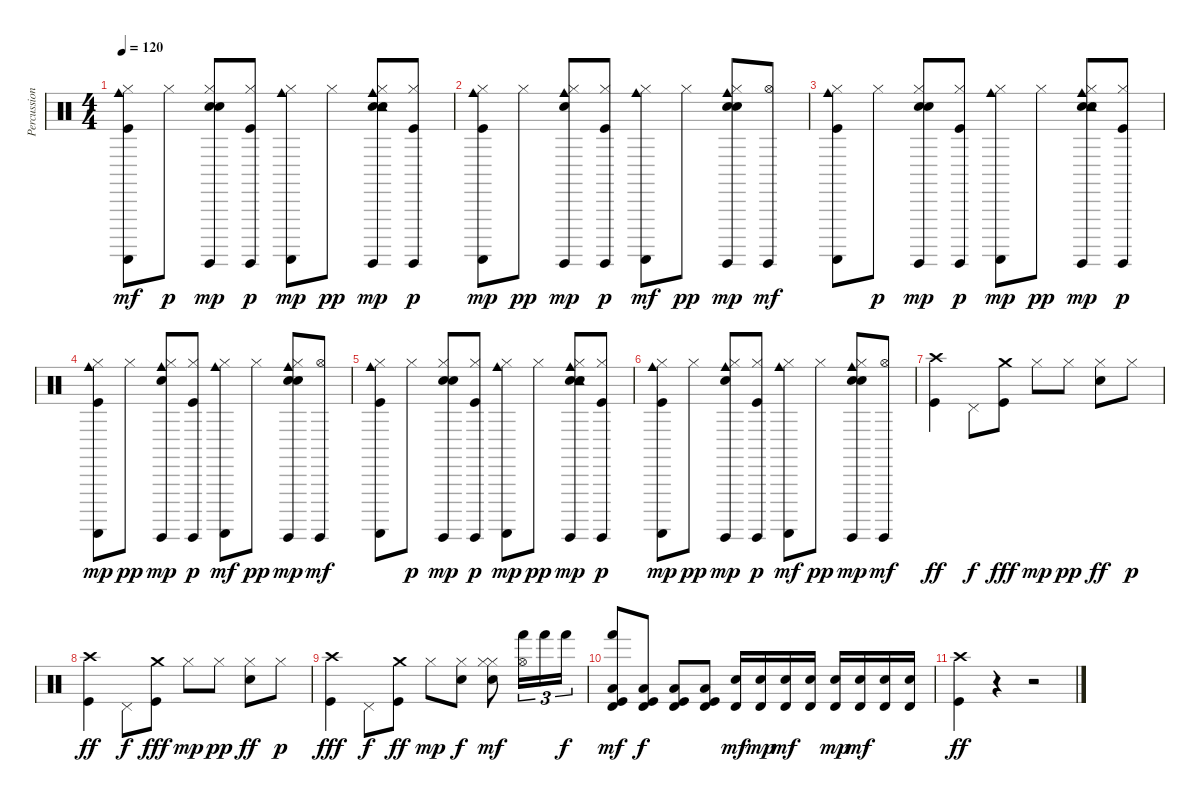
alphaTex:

\track ("Percussions" "Percussion") {instrument percussion}
\staff {score}
\articulation defaults
\ts (4 4)
\tempo 120
\clef neutral
\ks c
("Hi-Hat (closed)" "Guiro (scrap-return)" "Cowbell medium (hit)" "Kick (hit)").8{dy mf} "Hi-Hat (closed)".8{dy p} ("Hi-Hat (closed)" "Guiro (hit)" "Snare (hit) 2" "Hand Clap (hit)").8{dy mp} ("Hi-Hat (closed)" "Guiro (hit)" "Kick (hit)").8{dy p} ("Hi-Hat (closed)" "Guiro (scrap-return)" "Cowbell medium (hit)").8{dy mp} "Hi-Hat (closed)".8{dy pp} ("Hi-Hat (closed)" "Guiro (hit)" "Snare (hit) 2" "Hand Clap (hit)" "Cowbell medium (hit)" "Tambourine (hit)").8{dy mp} ("Hi-Hat (closed)" "Guiro (hit)" "Kick (hit)").8{dy p} |
("Hi-Hat (closed)" "Guiro (scrap-return)" "Cowbell medium (hit)" "Kick (hit)").8{dy mp} "Hi-Hat (closed)".8{dy pp} ("Hi-Hat (closed)" "Guiro (hit)" "Snare (hit) 2" "Cowbell medium (hit)").8{dy mp} ("Hi-Hat (closed)" "Guiro (hit)" "Kick (hit)").8{dy p} ("Hi-Hat (closed)" "Guiro (scrap-return)" "Cowbell medium (hit)").8{dy mf} "Hi-Hat (closed)".8{dy pp} ("Hi-Hat (closed)" "Guiro (hit)" "Snare (hit) 2" "Cowbell medium (hit)" "Hand Clap (hit)").8{dy mp} ("Hi-Hat (open)" "Guiro (hit)").8{dy mf} |
("Hi-Hat (closed)" "Guiro (scrap-return)" "Cowbell medium (hit)" "Kick (hit)").8 "Hi-Hat (closed)".8{dy p} ("Hi-Hat (closed)" "Guiro (hit)" "Snare (hit) 2" "Hand Clap (hit)").8{dy mp} ("Hi-Hat (closed)" "Guiro (hit)" "Kick (hit)").8{dy p} ("Hi-Hat (closed)" "Guiro (scrap-return)" "Cowbell medium (hit)").8{dy mp} "Hi-Hat (closed)".8{dy pp} ("Hi-Hat (closed)" "Guiro (hit)" "Snare (hit) 2" "Hand Clap (hit)" "Cowbell medium (hit)" "Tambourine (hit)").8{dy mp} ("Hi-Hat (closed)" "Guiro (hit)" "Kick (hit)").8{dy p} |
("Hi-Hat (closed)" "Guiro (scrap-return)" "Cowbell medium (hit)" "Kick (hit)").8{dy mp} "Hi-Hat (closed)".8{dy pp} ("Hi-Hat (closed)" "Guiro (hit)" "Snare (hit) 2" "Cowbell medium (hit)").8{dy mp} ("Hi-Hat (closed)" "Guiro (hit)" "Kick (hit)").8{dy p} ("Hi-Hat (closed)" "Guiro (scrap-return)" "Cowbell medium (hit)").8{dy mf} "Hi-Hat (closed)".8{dy pp} ("Hi-Hat (closed)" "Guiro (hit)" "Snare (hit) 2" "Cowbell medium (hit)" "Hand Clap (hit)").8{dy mp} ("Hi-Hat (open)" "Guiro (hit)").8{dy mf} |
("Hi-Hat (closed)" "Guiro (scrap-return)" "Cowbell medium (hit)" "Kick (hit)").8 "Hi-Hat (closed)".8{dy p} ("Hi-Hat (closed)" "Guiro (hit)" "Snare (hit) 2" "Hand Clap (hit)").8{dy mp} ("Hi-Hat (closed)" "Guiro (hit)" "Kick (hit)").8{dy p} ("Hi-Hat (closed)" "Guiro (scrap-return)" "Cowbell medium (hit)").8{dy mp} "Hi-Hat (closed)".8{dy pp} ("Hi-Hat (closed)" "Guiro (hit)" "Snare (hit) 2" "Hand Clap (hit)" "Cowbell medium (hit)" "Tambourine (hit)").8{dy mp} ("Hi-Hat (closed)" "Guiro (hit)" "Kick (hit)").8{dy p} |
("Hi-Hat (closed)" "Guiro (scrap-return)" "Cowbell medium (hit)" "Kick (hit)").8{dy mp} "Hi-Hat (closed)".8{dy pp} ("Hi-Hat (closed)" "Guiro (hit)" "Snare (hit) 2" "Cowbell medium (hit)").8{dy mp} ("Hi-Hat (closed)" "Guiro (hit)" "Kick (hit)").8{dy p} ("Hi-Hat (closed)" "Guiro (scrap-return)" "Cowbell medium (hit)").8{dy mf} "Hi-Hat (closed)".8{dy pp} ("Hi-Hat (closed)" "Guiro (hit)" "Snare (hit) 2" "Cowbell medium (hit)" "Hand Clap (hit)").8{dy mp} ("Hi-Hat (open)" "Guiro (hit)").8{dy mf} |
("Crash high (hit)" "Kick (hit)").4{dy ff} "Pedal Hi-Hat (hit)".8{dy f} ("Crash medium (hit)" "Kick (hit)").8{dy fff} "Hi-Hat (closed)".8{dy mp} "Hi-Hat (closed)".8{dy pp} ("Hi-Hat (closed)" "Snare (hit) 2").8{dy ff} "Hi-Hat (closed)".8{dy p} |
("Crash high (hit)" "Kick (hit)").4{dy ff} "Pedal Hi-Hat (hit)".8{dy f} ("Crash medium (hit)" "Kick (hit)").8{dy fff} "Hi-Hat (closed)".8{dy mp} "Hi-Hat (closed)".8{dy pp} ("Hi-Hat (closed)" "Snare (hit) 2").8{dy ff} "Hi-Hat (closed)".8{dy p} |
("Crash high (hit)" "Kick (hit)").4{dy fff} "Pedal Hi-Hat (hit)".8{dy f} ("Crash medium (hit)" "Kick (hit)").8{dy ff} "Hi-Hat (closed)".8{dy mp} ("Hi-Hat (closed)" "Snare (hit) 2").8{dy f} ("Hi-Hat (closed)" "Hi-Hat (closed)" "Snare (hit) 2").8{dy mf} ("Hi-Hat (open)" "Hand (hit)").16{tu (3 2)} "Hand (hit)".16{tu (3 2)} "Hand (hit)".16{tu (3 2) dy f} |
("Hand (hit)" "Timbale high (hit)" "Low Tom (hit)" "Kick (hit)").8{dy mf} ("Timbale high (hit)" "Low Tom (hit)" "Kick (hit)").8{dy f} ("Timbale high (hit)" "Low Tom (hit)" "Kick (hit)").8 ("Timbale high (hit)" "Low Tom (hit)" "Kick (hit)").8 ("Timbale high (hit)" "Snare (hit) 2").16{dy mf} ("Timbale high (hit)" "Snare (hit) 2").16{dy mp} ("Timbale high (hit)" "Snare (hit) 2").16{dy mf} ("Timbale high (hit)" "Snare (hit) 2").16 ("Timbale high (hit)" "Snare (hit) 2").16{dy mp} ("Timbale high (hit)" "Snare (hit) 2").16{dy mf} ("Timbale high (hit)" "Snare (hit) 2").16 ("Timbale high (hit)" "Snare (hit) 2").16 |
("Crash high (hit)" "Kick (hit)").4{dy ff} r.4 r.2
